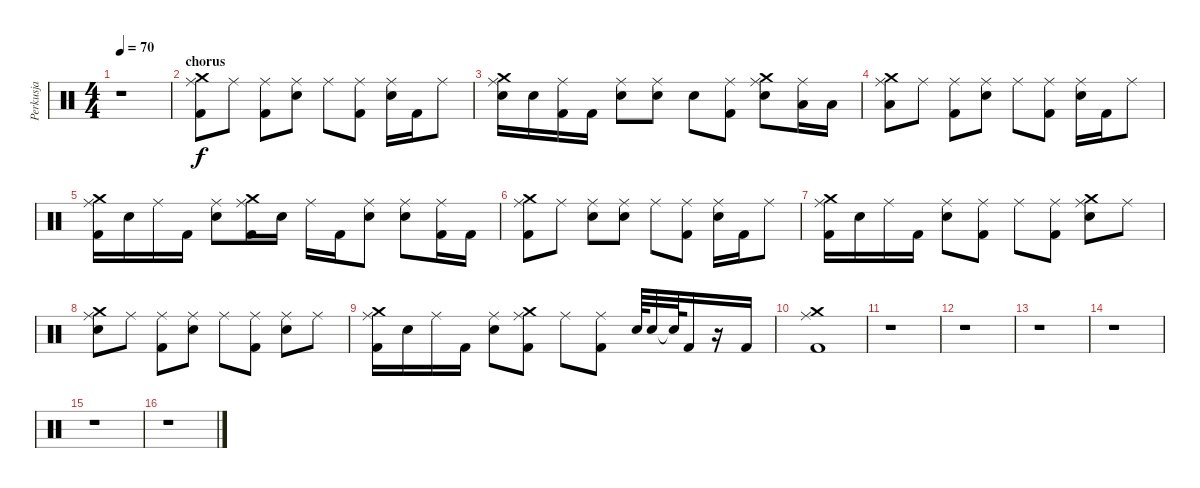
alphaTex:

\track ("Perkusja" "Perkusja") {instrument percussion}
\staff {score}
\articulation defaults
\ts (4 4)
\tempo 70
\clef neutral
\ks c
r.1{dy f} |
\section ("" "chorus")
("Ride (middle)" "Kick (hit) 2" "Crash medium (hit)").8 "Ride (middle)".8 ("Ride (middle)" "Kick (hit) 2").8 ("Ride (middle)" "Electric Snare (hit)").8 "Ride (middle)".8 ("Ride (middle)" "Kick (hit) 2").8 ("Ride (middle)" "Electric Snare (hit)").16 "Kick (hit) 2".16 "Ride (middle)".8 |
("Ride (middle)" "Electric Snare (hit)" "Crash medium (hit)").16 "Electric Snare (hit)".16 ("Ride (middle)" "Kick (hit) 2").16 "Kick (hit) 2".16 ("Ride (middle)" "Electric Snare (hit)").8 ("Ride (middle)" "Electric Snare (hit)").8 "Snare (hit) 2".8 ("Ride (middle)" "Kick (hit) 2").8 ("Ride (middle)" "Electric Snare (hit)" "Crash medium (hit)").8 ("Ride (middle)" "Low Floor Tom (hit)").16 "Low Floor Tom (hit)".16 |
("Ride (middle)" "Low Floor Tom (hit)" "Crash medium (hit)").8 "Ride (middle)".8 ("Ride (middle)" "Kick (hit) 2").8 ("Ride (middle)" "Electric Snare (hit)").8 "Ride (middle)".8 ("Ride (middle)" "Kick (hit) 2").8 ("Ride (middle)" "Electric Snare (hit)").16 "Kick (hit) 2".16 "Ride (middle)".8 |
("Ride (middle)" "Kick (hit) 2" "Crash medium (hit)").16 "Electric Snare (hit)".16 "Ride (middle)".16 "Kick (hit) 2".16 ("Ride (middle)" "Electric Snare (hit)").8 ("Ride (middle)" "Kick (hit) 2" "Crash medium (hit)").16 "Electric Snare (hit)".16 "Ride (middle)".16 "Kick (hit) 2".16 ("Ride (middle)" "Electric Snare (hit)").8 ("Ride (middle)" "Electric Snare (hit)").8 ("Ride (middle)" "Kick (hit) 2").16 "Kick (hit) 2".16 |
("Ride (middle)" "Kick (hit) 2" "Crash medium (hit)").8 "Ride (middle)".8 ("Ride (middle)" "Electric Snare (hit)").8 ("Ride (middle)" "Electric Snare (hit)").8 "Ride (middle)".8 ("Ride (middle)" "Kick (hit) 2").8 ("Ride (middle)" "Electric Snare (hit)").16 "Kick (hit) 2".16 "Ride (middle)".8 |
("Ride (middle)" "Kick (hit) 2" "Crash medium (hit)").16 "Electric Snare (hit)".16 "Ride (middle)".16 "Kick (hit) 2".16 ("Ride (middle)" "Electric Snare (hit)").8 ("Ride (middle)" "Kick (hit) 2").8 "Ride (middle)".8 ("Ride (middle)" "Kick (hit) 2").8 ("Ride (middle)" "Electric Snare (hit)" "Crash medium (hit)").8 "Ride (middle)".8 |
("Ride (middle)" "Electric Snare (hit)" "Crash medium (hit)").8 "Ride (middle)".8 ("Ride (middle)" "Kick (hit) 2").8 ("Ride (middle)" "Electric Snare (hit)").8 "Ride (middle)".8 ("Ride (middle)" "Kick (hit) 2").8 ("Ride (middle)" "Electric Snare (hit)").8 "Ride (middle)".8 |
("Ride (middle)" "Kick (hit) 2" "Crash medium (hit)").16 "Electric Snare (hit)".16 "Ride (middle)".16 "Kick (hit) 2".16 ("Ride (middle)" "Electric Snare (hit)").8 ("Ride (middle)" "Kick (hit) 2" "Crash medium (hit)").8 "Ride (middle)".8 ("Ride (middle)" "Kick (hit) 2").8 "Snare (hit) 2".64 "Electric Snare (hit)".32 "Snare (hit)"{t}.64 "Kick (hit) 2".16 r.16 "Kick (hit) 2".16 |
("Ride (middle)" "Kick (hit) 2" "Crash medium (hit)").1 |
r.1 |
r.1 |
r.1 |
r.1 |
r.1 |
r.1
